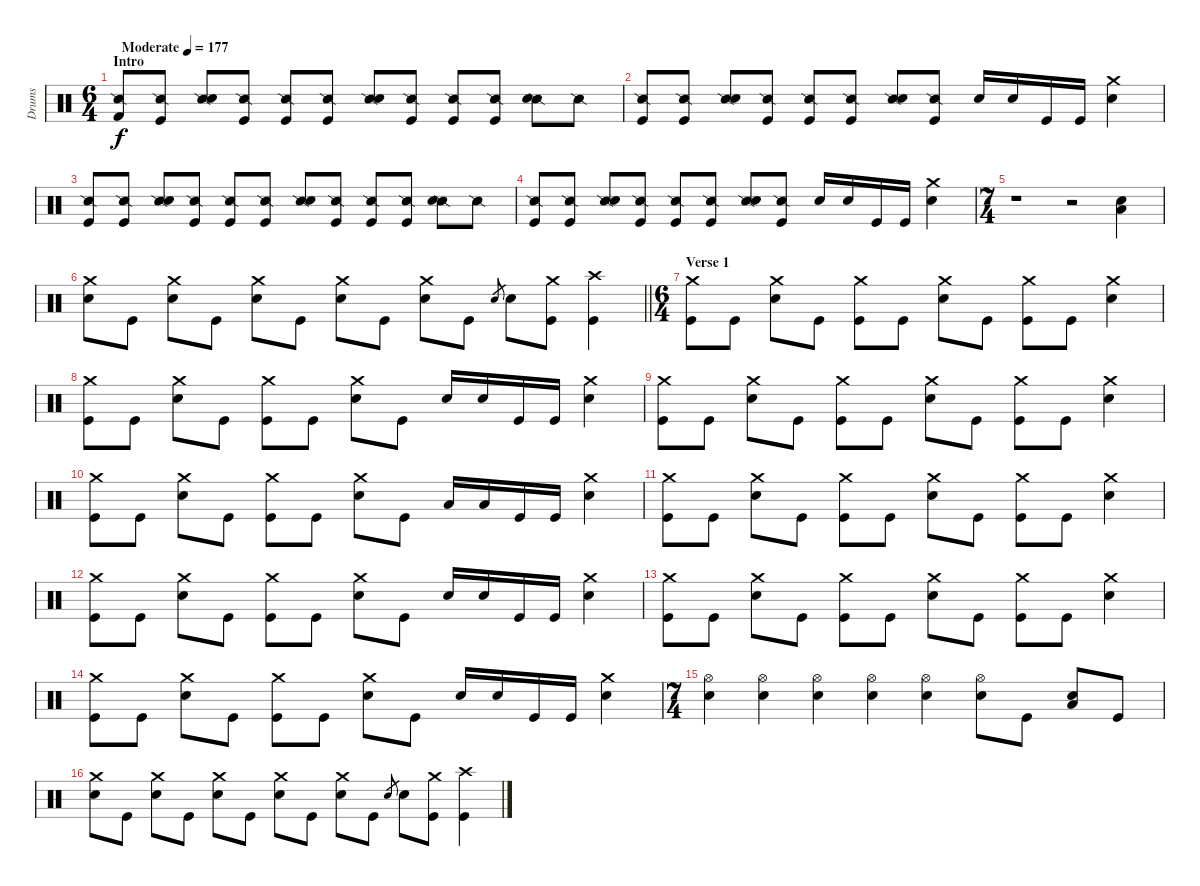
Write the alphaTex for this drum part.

\track ("Drums" "Drums") {instrument percussion}
\staff {score}
\articulation defaults
\ts (6 4)
\section ("" "Intro")
\tempo (177 "Moderate")
\clef neutral
\ks c
("Snare (side stick) 2" "Kick (hit) 2").8{dy f} ("Snare (side stick) 2" "Kick (hit)").8 ("Snare (side stick) 2" "Electric Snare (hit)").8 ("Snare (side stick) 2" "Kick (hit)").8 ("Snare (side stick) 2" "Kick (hit)").8 ("Snare (side stick) 2" "Kick (hit)").8 ("Snare (side stick) 2" "Electric Snare (hit)").8 ("Snare (side stick) 2" "Kick (hit)").8 ("Snare (side stick) 2" "Kick (hit)").8 ("Snare (side stick) 2" "Kick (hit)").8 ("Snare (side stick) 2" "Electric Snare (hit)").8 "Snare (side stick) 2".8 |
("Snare (side stick) 2" "Kick (hit)").8 ("Snare (side stick) 2" "Kick (hit)").8 ("Snare (side stick) 2" "Electric Snare (hit)").8 ("Snare (side stick) 2" "Kick (hit)").8 ("Snare (side stick) 2" "Kick (hit)").8 ("Snare (side stick) 2" "Kick (hit)").8 ("Snare (side stick) 2" "Electric Snare (hit)").8 ("Snare (side stick) 2" "Kick (hit)").8 "Electric Snare (hit)".16 "Electric Snare (hit)".16 "Kick (hit)".16 "Kick (hit)".16 ("Crash medium (hit)" "Electric Snare (hit)").4 |
("Snare (side stick) 2" "Kick (hit)").8 ("Snare (side stick) 2" "Kick (hit)").8 ("Snare (side stick) 2" "Electric Snare (hit)").8 ("Snare (side stick) 2" "Kick (hit)").8 ("Snare (side stick) 2" "Kick (hit)").8 ("Snare (side stick) 2" "Kick (hit)").8 ("Snare (side stick) 2" "Electric Snare (hit)").8 ("Snare (side stick) 2" "Kick (hit)").8 ("Snare (side stick) 2" "Kick (hit)").8 ("Snare (side stick) 2" "Kick (hit)").8 ("Snare (side stick) 2" "Electric Snare (hit)").8 "Snare (side stick) 2".8 |
("Snare (side stick) 2" "Kick (hit)").8 ("Snare (side stick) 2" "Kick (hit)").8 ("Snare (side stick) 2" "Electric Snare (hit)").8 ("Snare (side stick) 2" "Kick (hit)").8 ("Snare (side stick) 2" "Kick (hit)").8 ("Snare (side stick) 2" "Kick (hit)").8 ("Snare (side stick) 2" "Electric Snare (hit)").8 ("Snare (side stick) 2" "Kick (hit)").8 "Electric Snare (hit)".16 "Electric Snare (hit)".16 "Kick (hit)".16 "Kick (hit)".16 ("Crash medium (hit)" "Electric Snare (hit)").4 |
\ts (7 4)
r.1 r.2 ("Electric Snare (hit)" "Low Floor Tom (hit)").4 |
\barLineRight lightlight
("Crash medium (hit)" "Electric Snare (hit)").8 "Kick (hit)".8 ("Crash medium (hit)" "Electric Snare (hit)").8 "Kick (hit)".8 ("Crash medium (hit)" "Electric Snare (hit)").8 "Kick (hit)".8 ("Crash medium (hit)" "Electric Snare (hit)").8 "Kick (hit)".8 ("Crash medium (hit)" "Electric Snare (hit)").8 "Kick (hit)".8 "Electric Snare (hit)".8{gr} "Electric Snare (hit)".8 ("Crash medium (hit)" "Kick (hit)").8 ("Crash high (hit)" "Kick (hit)").4 |
\ts (6 4)
\section ("" "Verse 1")
("Crash medium (hit)" "Kick (hit)").8 "Kick (hit)".8 ("Crash medium (hit)" "Electric Snare (hit)").8 "Kick (hit)".8 ("Crash medium (hit)" "Kick (hit)").8 "Kick (hit)".8 ("Crash medium (hit)" "Electric Snare (hit)").8 "Kick (hit)".8 ("Crash medium (hit)" "Kick (hit)").8 "Kick (hit)".8 ("Crash medium (hit)" "Electric Snare (hit)").4 |
("Crash medium (hit)" "Kick (hit)").8 "Kick (hit)".8 ("Crash medium (hit)" "Electric Snare (hit)").8 "Kick (hit)".8 ("Crash medium (hit)" "Kick (hit)").8 "Kick (hit)".8 ("Crash medium (hit)" "Electric Snare (hit)").8 "Kick (hit)".8 "Electric Snare (hit)".16 "Electric Snare (hit)".16 "Kick (hit)".16 "Kick (hit)".16 ("Crash medium (hit)" "Electric Snare (hit)").4 |
("Crash medium (hit)" "Kick (hit)").8 "Kick (hit)".8 ("Crash medium (hit)" "Electric Snare (hit)").8 "Kick (hit)".8 ("Crash medium (hit)" "Kick (hit)").8 "Kick (hit)".8 ("Crash medium (hit)" "Electric Snare (hit)").8 "Kick (hit)".8 ("Crash medium (hit)" "Kick (hit)").8 "Kick (hit)".8 ("Crash medium (hit)" "Electric Snare (hit)").4 |
("Crash medium (hit)" "Kick (hit)").8 "Kick (hit)".8 ("Crash medium (hit)" "Electric Snare (hit)").8 "Kick (hit)".8 ("Crash medium (hit)" "Kick (hit)").8 "Kick (hit)".8 ("Crash medium (hit)" "Electric Snare (hit)").8 "Kick (hit)".8 "Low Floor Tom (hit)".16 "Low Floor Tom (hit)".16 "Kick (hit)".16 "Kick (hit)".16 ("Crash medium (hit)" "Electric Snare (hit)").4 |
("Crash medium (hit)" "Kick (hit)").8 "Kick (hit)".8 ("Crash medium (hit)" "Electric Snare (hit)").8 "Kick (hit)".8 ("Crash medium (hit)" "Kick (hit)").8 "Kick (hit)".8 ("Crash medium (hit)" "Electric Snare (hit)").8 "Kick (hit)".8 ("Crash medium (hit)" "Kick (hit)").8 "Kick (hit)".8 ("Crash medium (hit)" "Electric Snare (hit)").4 |
("Crash medium (hit)" "Kick (hit)").8 "Kick (hit)".8 ("Crash medium (hit)" "Electric Snare (hit)").8 "Kick (hit)".8 ("Crash medium (hit)" "Kick (hit)").8 "Kick (hit)".8 ("Crash medium (hit)" "Electric Snare (hit)").8 "Kick (hit)".8 "Electric Snare (hit)".16 "Electric Snare (hit)".16 "Kick (hit)".16 "Kick (hit)".16 ("Crash medium (hit)" "Electric Snare (hit)").4 |
("Crash medium (hit)" "Kick (hit)").8 "Kick (hit)".8 ("Crash medium (hit)" "Electric Snare (hit)").8 "Kick (hit)".8 ("Crash medium (hit)" "Kick (hit)").8 "Kick (hit)".8 ("Crash medium (hit)" "Electric Snare (hit)").8 "Kick (hit)".8 ("Crash medium (hit)" "Kick (hit)").8 "Kick (hit)".8 ("Crash medium (hit)" "Electric Snare (hit)").4 |
("Crash medium (hit)" "Kick (hit)").8 "Kick (hit)".8 ("Crash medium (hit)" "Electric Snare (hit)").8 "Kick (hit)".8 ("Crash medium (hit)" "Kick (hit)").8 "Kick (hit)".8 ("Crash medium (hit)" "Electric Snare (hit)").8 "Kick (hit)".8 "Electric Snare (hit)".16 "Electric Snare (hit)".16 "Kick (hit)".16 "Kick (hit)".16 ("Crash medium (hit)" "Electric Snare (hit)").4 |
\ts (7 4)
("Hi-Hat (open)" "Electric Snare (hit)").4 ("Hi-Hat (open)" "Electric Snare (hit)").4 ("Hi-Hat (open)" "Electric Snare (hit)").4 ("Hi-Hat (open)" "Electric Snare (hit)").4 ("Hi-Hat (open)" "Electric Snare (hit)").4 ("Hi-Hat (open)" "Electric Snare (hit)").8 "Kick (hit)".8 ("Electric Snare (hit)" "Low Floor Tom (hit)").8 "Kick (hit)".8 |
("Crash medium (hit)" "Electric Snare (hit)").8 "Kick (hit)".8 ("Crash medium (hit)" "Electric Snare (hit)").8 "Kick (hit)".8 ("Crash medium (hit)" "Electric Snare (hit)").8 "Kick (hit)".8 ("Crash medium (hit)" "Electric Snare (hit)").8 "Kick (hit)".8 ("Crash medium (hit)" "Electric Snare (hit)").8 "Kick (hit)".8 "Electric Snare (hit)".8{gr} "Electric Snare (hit)".8 ("Crash medium (hit)" "Kick (hit)").8 ("Crash high (hit)" "Kick (hit)").4
